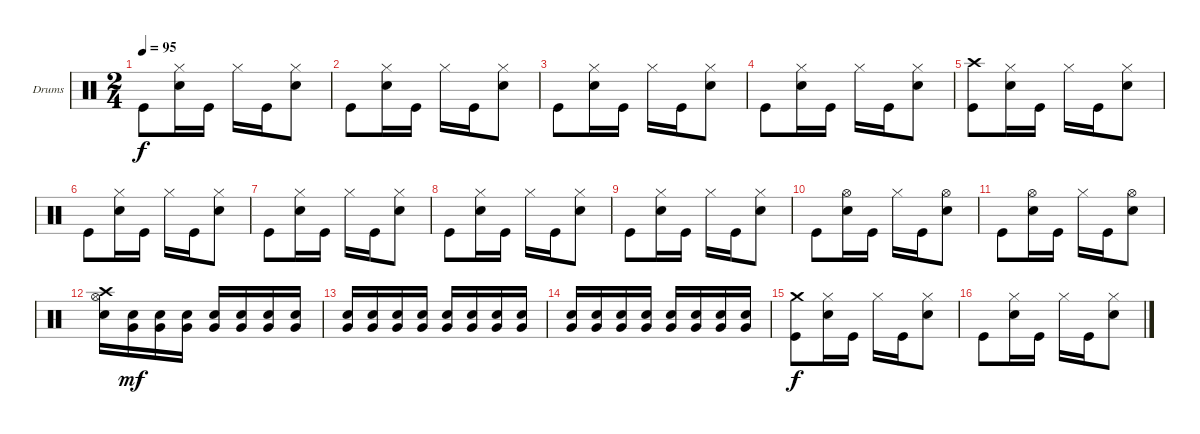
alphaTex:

\bracketExtendMode groupsimilarinstruments
\firstSystemTrackNameOrientation horizontal
\otherSystemsTrackNameOrientation horizontal
\track ("Drumkit" "Drums") {instrument percussion}
\staff {score}
\articulation defaults
\ts (2 4)
\tempo 95
\clef neutral
\ks c "Kick (hit)".8{dy f}
("Hi-Hat (closed)" "Snare (hit) 2").16 "Kick (hit)".16 "Hi-Hat (closed)".16 "Kick (hit)".16 ("Hi-Hat (closed)" "Snare (hit) 2").8 |
"Kick (hit)".8 ("Hi-Hat (closed)" "Snare (hit) 2").16 "Kick (hit)".16 "Hi-Hat (closed)".16 "Kick (hit)".16 ("Hi-Hat (closed)" "Snare (hit) 2").8 |
"Kick (hit)".8 ("Hi-Hat (closed)" "Snare (hit) 2").16 "Kick (hit)".16 "Hi-Hat (closed)".16 "Kick (hit)".16 ("Hi-Hat (closed)" "Snare (hit) 2").8 |
"Kick (hit)".8 ("Hi-Hat (closed)" "Snare (hit) 2").16 "Kick (hit)".16 "Hi-Hat (closed)".16 "Kick (hit)".16 ("Hi-Hat (closed)" "Snare (hit) 2").8 |
("Kick (hit)" "Crash high (hit)").8 ("Hi-Hat (closed)" "Snare (hit) 2").16 "Kick (hit)".16 "Hi-Hat (closed)".16 "Kick (hit)".16 ("Hi-Hat (closed)" "Snare (hit) 2").8 |
"Kick (hit)".8 ("Hi-Hat (closed)" "Snare (hit) 2").16 "Kick (hit)".16 "Hi-Hat (closed)".16 "Kick (hit)".16 ("Hi-Hat (closed)" "Snare (hit) 2").8 |
"Kick (hit)".8 ("Hi-Hat (closed)" "Snare (hit) 2").16 "Kick (hit)".16 "Hi-Hat (closed)".16 "Kick (hit)".16 ("Hi-Hat (closed)" "Snare (hit) 2").8 |
"Kick (hit)".8 ("Hi-Hat (closed)" "Snare (hit) 2").16 "Kick (hit)".16 "Hi-Hat (closed)".16 "Kick (hit)".16 ("Hi-Hat (closed)" "Snare (hit) 2").8 |
"Kick (hit)".8 ("Hi-Hat (closed)" "Snare (hit) 2").16 "Kick (hit)".16 "Hi-Hat (closed)".16 "Kick (hit)".16 ("Hi-Hat (closed)" "Snare (hit) 2").8 |
"Kick (hit)".8 ("Snare (hit) 2" "Hi-Hat (open)").16 "Kick (hit)".16 "Hi-Hat (closed)".16 "Kick (hit)".16 ("Snare (hit) 2" "Hi-Hat (open)").8 |
"Kick (hit)".8 ("Snare (hit) 2" "Hi-Hat (open)").16 "Kick (hit)".16 "Hi-Hat (closed)".16 "Kick (hit)".16 ("Snare (hit) 2" "Hi-Hat (open)").8 |
("Snare (hit) 2" "Hi-Hat (open)" "Crash high (hit)").16 ("Very Low Tom (hit)" "Snare (hit) 2").16{dy mf} ("Very Low Tom (hit)" "Snare (hit) 2").16 ("Very Low Tom (hit)" "Snare (hit) 2").16 ("Very Low Tom (hit)" "Snare (hit) 2").16 ("Very Low Tom (hit)" "Snare (hit) 2").16 ("Very Low Tom (hit)" "Snare (hit) 2").16 ("Very Low Tom (hit)" "Snare (hit) 2").16 |
("Snare (hit) 2" "Very Low Tom (hit)").16 ("Very Low Tom (hit)" "Snare (hit) 2").16 ("Very Low Tom (hit)" "Snare (hit) 2").16 ("Very Low Tom (hit)" "Snare (hit) 2").16 ("Very Low Tom (hit)" "Snare (hit) 2").16 ("Very Low Tom (hit)" "Snare (hit) 2").16 ("Very Low Tom (hit)" "Snare (hit) 2").16 ("Very Low Tom (hit)" "Snare (hit) 2").16 |
("Snare (hit) 2" "Very Low Tom (hit)").16 ("Snare (hit) 2" "Very Low Tom (hit)").16 ("Snare (hit) 2" "Very Low Tom (hit)").16 ("Snare (hit) 2" "Very Low Tom (hit)").16 ("Snare (hit) 2" "Very Low Tom (hit)").16 ("Snare (hit) 2" "Very Low Tom (hit)").16 ("Snare (hit) 2" "Very Low Tom (hit)").16 ("Snare (hit) 2" "Very Low Tom (hit)").16 |
("Kick (hit)" "Crash medium (hit)").8{dy f} ("Hi-Hat (closed)" "Snare (hit) 2").16 "Kick (hit)".16 "Hi-Hat (closed)".16 "Kick (hit)".16 ("Hi-Hat (closed)" "Snare (hit) 2").8 |
"Kick (hit)".8 ("Hi-Hat (closed)" "Snare (hit) 2").16 "Kick (hit)".16 "Hi-Hat (closed)".16 "Kick (hit)".16 ("Hi-Hat (closed)" "Snare (hit) 2").8
